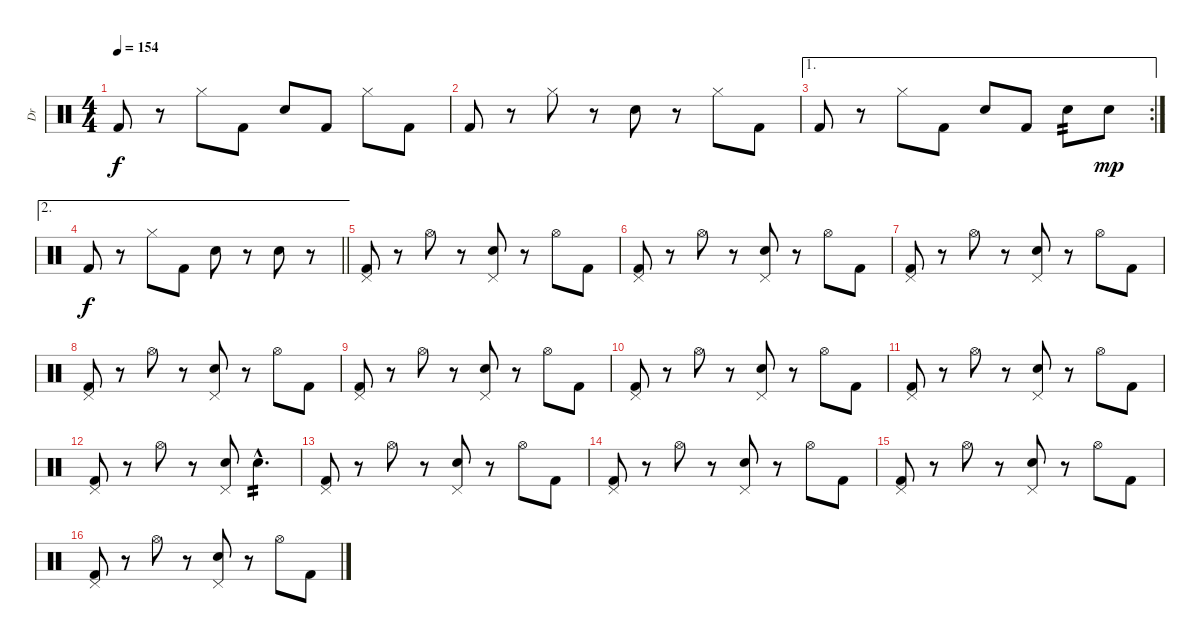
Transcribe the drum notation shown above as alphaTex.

\track ("Dr" "Dr") {instrument percussion}
\staff {score}
\articulation defaults
\ts (4 4)
\tempo 154
\clef neutral
\ks c "Kick (hit) 2".8{dy f}
r.8 "Hi-Hat (closed)".8 "Kick (hit) 2".8 "Electric Snare (hit)".8 "Kick (hit) 2".8 "Hi-Hat (closed)".8 "Kick (hit) 2".8 |
"Kick (hit) 2".8 r.8 "Hi-Hat (closed)".8 r.8 "Electric Snare (hit)".8 r.8 "Hi-Hat (closed)".8 "Kick (hit) 2".8 |
\ae 1
\rc 2 "Kick (hit) 2".8
r.8 "Hi-Hat (closed)".8 "Kick (hit) 2".8 "Electric Snare (hit)".8 "Kick (hit) 2".8 "Electric Snare (hit)".8{tp 2} "Electric Snare (hit)".8{dy mp} |
\ae 2
\barLineRight lightlight "Kick (hit) 2".8{dy f}
r.8 "Hi-Hat (closed)".8 "Kick (hit) 2".8 "Electric Snare (hit)".8 r.8 "Electric Snare (hit)".8 r.8 |
("Pedal Hi-Hat (hit)" "Kick (hit) 2").8 r.8 "Hi-Hat (open)".8 r.8 ("Pedal Hi-Hat (hit)" "Electric Snare (hit)").8 r.8 "Hi-Hat (open)".8 "Kick (hit) 2".8 |
("Pedal Hi-Hat (hit)" "Kick (hit) 2").8 r.8 "Hi-Hat (open)".8 r.8 ("Pedal Hi-Hat (hit)" "Electric Snare (hit)").8 r.8 "Hi-Hat (open)".8 "Kick (hit) 2".8 |
("Pedal Hi-Hat (hit)" "Kick (hit) 2").8 r.8 "Hi-Hat (open)".8 r.8 ("Pedal Hi-Hat (hit)" "Electric Snare (hit)").8 r.8 "Hi-Hat (open)".8 "Kick (hit) 2".8 |
("Pedal Hi-Hat (hit)" "Kick (hit) 2").8 r.8 "Hi-Hat (open)".8 r.8 ("Pedal Hi-Hat (hit)" "Electric Snare (hit)").8 r.8 "Hi-Hat (open)".8 "Kick (hit) 2".8 |
("Pedal Hi-Hat (hit)" "Kick (hit) 2").8 r.8 "Hi-Hat (open)".8 r.8 ("Pedal Hi-Hat (hit)" "Electric Snare (hit)").8 r.8 "Hi-Hat (open)".8 "Kick (hit) 2".8 |
("Pedal Hi-Hat (hit)" "Kick (hit) 2").8 r.8 "Hi-Hat (open)".8 r.8 ("Pedal Hi-Hat (hit)" "Electric Snare (hit)").8 r.8 "Hi-Hat (open)".8 "Kick (hit) 2".8 |
("Pedal Hi-Hat (hit)" "Kick (hit) 2").8 r.8 "Hi-Hat (open)".8 r.8 ("Pedal Hi-Hat (hit)" "Electric Snare (hit)").8 r.8 "Hi-Hat (open)".8 "Kick (hit) 2".8 |
("Pedal Hi-Hat (hit)" "Kick (hit) 2").8 r.8 "Hi-Hat (open)".8 r.8 ("Pedal Hi-Hat (hit)" "Electric Snare (hit)").8 "Electric Snare (hit)"{hac}.4{d tp 2} |
("Pedal Hi-Hat (hit)" "Kick (hit) 2").8 r.8 "Hi-Hat (open)".8 r.8 ("Pedal Hi-Hat (hit)" "Electric Snare (hit)").8 r.8 "Hi-Hat (open)".8 "Kick (hit) 2".8 |
("Pedal Hi-Hat (hit)" "Kick (hit) 2").8 r.8 "Hi-Hat (open)".8 r.8 ("Pedal Hi-Hat (hit)" "Electric Snare (hit)").8 r.8 "Hi-Hat (open)".8 "Kick (hit) 2".8 |
("Pedal Hi-Hat (hit)" "Kick (hit) 2").8 r.8 "Hi-Hat (open)".8 r.8 ("Pedal Hi-Hat (hit)" "Electric Snare (hit)").8 r.8 "Hi-Hat (open)".8 "Kick (hit) 2".8 |
("Pedal Hi-Hat (hit)" "Kick (hit) 2").8 r.8 "Hi-Hat (open)".8 r.8 ("Pedal Hi-Hat (hit)" "Electric Snare (hit)").8 r.8 "Hi-Hat (open)".8 "Kick (hit) 2".8
